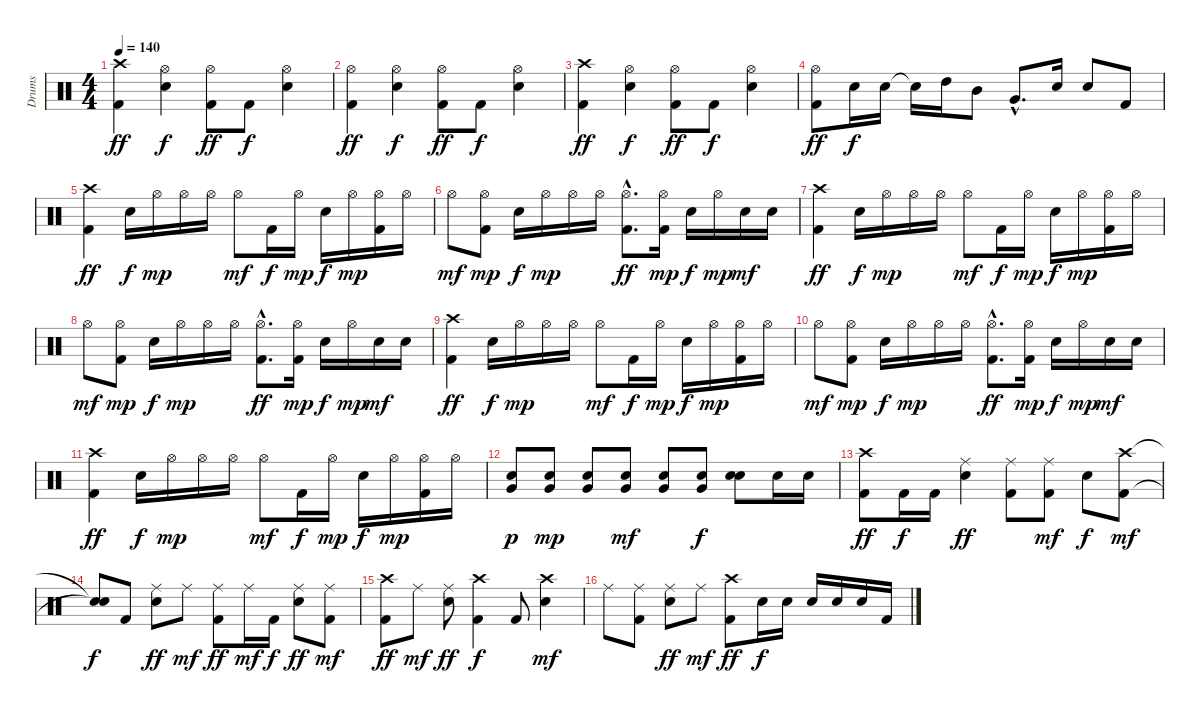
\track ("Drums" "Drums") {instrument percussion}
\staff {score}
\articulation defaults
\ts (4 4)
\tempo 140
\clef neutral
\ks c
("Crash high (hit)" "Kick (hit) 2").4{dy ff} ("Hi-Hat (open)" "Electric Snare (hit)").4{dy f} ("Hi-Hat (open)" "Kick (hit) 2").8{dy ff} "Kick (hit) 2".8{dy f} ("Hi-Hat (open)" "Electric Snare (hit)").4 |
("Hi-Hat (open)" "Kick (hit) 2").4{dy ff} ("Hi-Hat (open)" "Electric Snare (hit)").4{dy f} ("Hi-Hat (open)" "Kick (hit) 2").8{dy ff} "Kick (hit) 2".8{dy f} ("Hi-Hat (open)" "Electric Snare (hit)").4 |
("Crash high (hit)" "Kick (hit) 2").4{dy ff} ("Hi-Hat (open)" "Electric Snare (hit)").4{dy f} ("Hi-Hat (open)" "Kick (hit) 2").8{dy ff} "Kick (hit) 2".8{dy f} ("Hi-Hat (open)" "Electric Snare (hit)").4 |
("Hi-Hat (open)" "Kick (hit) 2").8{dy ff} "Electric Snare (hit)".16{dy f} "Electric Snare (hit)".16 "Snare (hit)"{t}.16 "High Tom (hit)".16 "Mid Tom (hit)".8 "Very Low Tom (hit)"{hac}.8{d} "Electric Snare (hit)".16 "Electric Snare (hit)".8 "Kick (hit) 2".8 |
("Crash high (hit)" "Kick (hit) 2").4{dy ff} "Electric Snare (hit)".16{dy f} "Hi-Hat (open)".16{dy mp} "Hi-Hat (open)".16 "Hi-Hat (open)".16 "Hi-Hat (open)".8{dy mf} "Kick (hit) 2".16{dy f} "Hi-Hat (open)".16{dy mp} "Electric Snare (hit)".16{dy f} "Hi-Hat (open)".16{dy mp} ("Hi-Hat (open)" "Kick (hit) 2").16 "Hi-Hat (open)".16 |
"Hi-Hat (open)".8{dy mf} ("Hi-Hat (open)" "Kick (hit) 2").8{dy mp} "Electric Snare (hit)".16{dy f} "Hi-Hat (open)".16{dy mp} "Hi-Hat (open)".16 "Hi-Hat (open)".16 ("Hi-Hat (open)"{hac} "Kick (hit) 2"{hac}).8{d dy ff} ("Hi-Hat (open)" "Kick (hit) 2").16{dy mp} "Electric Snare (hit)".16{dy f} "Hi-Hat (open)".16{dy mp} "Electric Snare (hit)".16{dy mf} "Electric Snare (hit)".16 |
("Crash high (hit)" "Kick (hit) 2").4{dy ff} "Electric Snare (hit)".16{dy f} "Hi-Hat (open)".16{dy mp} "Hi-Hat (open)".16 "Hi-Hat (open)".16 "Hi-Hat (open)".8{dy mf} "Kick (hit) 2".16{dy f} "Hi-Hat (open)".16{dy mp} "Electric Snare (hit)".16{dy f} "Hi-Hat (open)".16{dy mp} ("Hi-Hat (open)" "Kick (hit) 2").16 "Hi-Hat (open)".16 |
"Hi-Hat (open)".8{dy mf} ("Hi-Hat (open)" "Kick (hit) 2").8{dy mp} "Electric Snare (hit)".16{dy f} "Hi-Hat (open)".16{dy mp} "Hi-Hat (open)".16 "Hi-Hat (open)".16 ("Hi-Hat (open)"{hac} "Kick (hit) 2"{hac}).8{d dy ff} ("Hi-Hat (open)" "Kick (hit) 2").16{dy mp} "Electric Snare (hit)".16{dy f} "Hi-Hat (open)".16{dy mp} "Electric Snare (hit)".16{dy mf} "Electric Snare (hit)".16 |
("Crash high (hit)" "Kick (hit) 2").4{dy ff} "Electric Snare (hit)".16{dy f} "Hi-Hat (open)".16{dy mp} "Hi-Hat (open)".16 "Hi-Hat (open)".16 "Hi-Hat (open)".8{dy mf} "Kick (hit) 2".16{dy f} "Hi-Hat (open)".16{dy mp} "Electric Snare (hit)".16{dy f} "Hi-Hat (open)".16{dy mp} ("Hi-Hat (open)" "Kick (hit) 2").16 "Hi-Hat (open)".16 |
"Hi-Hat (open)".8{dy mf} ("Hi-Hat (open)" "Kick (hit) 2").8{dy mp} "Electric Snare (hit)".16{dy f} "Hi-Hat (open)".16{dy mp} "Hi-Hat (open)".16 "Hi-Hat (open)".16 ("Hi-Hat (open)"{hac} "Kick (hit) 2"{hac}).8{d dy ff} ("Hi-Hat (open)" "Kick (hit) 2").16{dy mp} "Electric Snare (hit)".16{dy f} "Hi-Hat (open)".16{dy mp} "Electric Snare (hit)".16{dy mf} "Electric Snare (hit)".16 |
("Crash high (hit)" "Kick (hit) 2").4{dy ff} "Electric Snare (hit)".16{dy f} "Hi-Hat (open)".16{dy mp} "Hi-Hat (open)".16 "Hi-Hat (open)".16 "Hi-Hat (open)".8{dy mf} "Kick (hit) 2".16{dy f} "Hi-Hat (open)".16{dy mp} "Electric Snare (hit)".16{dy f} "Hi-Hat (open)".16{dy mp} ("Hi-Hat (open)" "Kick (hit) 2").16 "Hi-Hat (open)".16 |
("Electric Snare (hit)" "Very Low Tom (hit)").8{dy p} ("Electric Snare (hit)" "Very Low Tom (hit)").8{dy mp} ("Electric Snare (hit)" "Very Low Tom (hit)").8 ("Electric Snare (hit)" "Very Low Tom (hit)").8{dy mf} ("Electric Snare (hit)" "Very Low Tom (hit)").8 ("Electric Snare (hit)" "Very Low Tom (hit)").8{dy f} ("Electric Snare (hit)" "Electric Snare (hit)").8 "Electric Snare (hit)".16 "Electric Snare (hit)".16 |
("Crash high (hit)" "Kick (hit) 2").8{dy ff} "Kick (hit) 2".16{dy f} "Kick (hit) 2".16 ("Ride (middle)" "Electric Snare (hit)").4{dy ff} ("Ride (middle)" "Kick (hit) 2").8 ("Ride (middle)" "Kick (hit) 2").8{dy mf} "Electric Snare (hit)".8{dy f} ("Crash high (hit)" "Kick (hit) 2").8{dy mf} |
("Snare (hit)"{t} "Snare (hit)"{t}).8{dy f} "Kick (hit) 2".8 ("Ride (middle)" "Electric Snare (hit)").8{dy ff} "Ride (middle)".8{dy mf} ("Ride (middle)" "Kick (hit) 2").8{dy ff} "Ride (middle)".16{dy mf} "Kick (hit) 2".16{dy f} ("Ride (middle)" "Electric Snare (hit)").8{dy ff} ("Ride (middle)" "Kick (hit) 2").8{dy mf} |
("Crash high (hit)" "Kick (hit) 2").8{dy ff} "Ride (middle)".8{dy mf} ("Ride (middle)" "Electric Snare (hit)").8{dy ff} ("Crash high (hit)" "Kick (hit) 2").4{dy f} "Kick (hit) 2".8 ("Crash high (hit)" "Electric Snare (hit)").4{dy mf} |
"Ride (middle)".8 ("Ride (middle)" "Kick (hit) 2").8 ("Ride (middle)" "Electric Snare (hit)").8{dy ff} "Ride (middle)".8{dy mf} ("Crash high (hit)" "Kick (hit) 2").8{dy ff} "Electric Snare (hit)".16{dy f} "Electric Snare (hit)".16 "Electric Snare (hit)".16 "Electric Snare (hit)".16 "Electric Snare (hit)".16 "Kick (hit) 2".16
